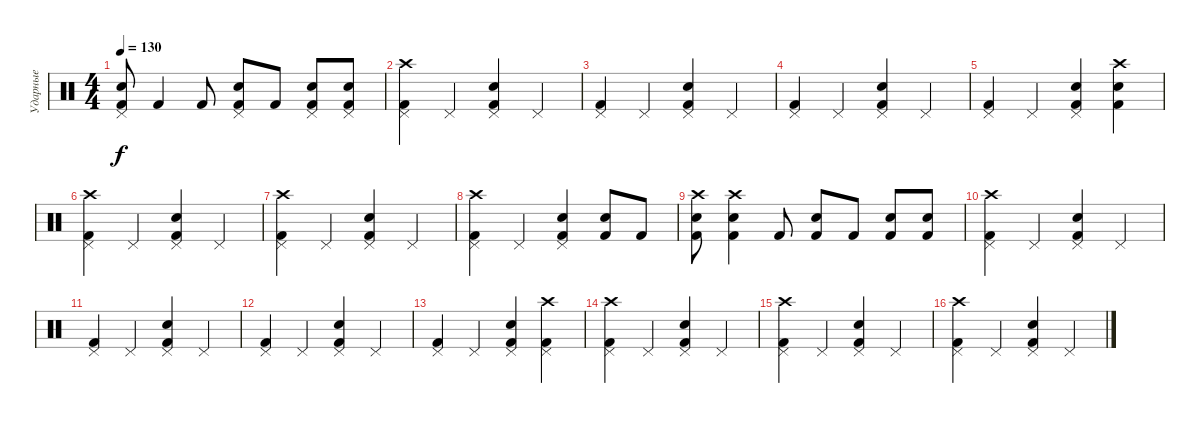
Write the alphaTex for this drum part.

\track ("Ударные" "Ударные") {instrument percussion}
\staff {score}
\articulation defaults
\ts (4 4)
\tempo 130
\clef neutral
\ks c
("Pedal Hi-Hat (hit)" "Snare (hit) 2" "Kick (hit) 2").8{dy f} "Kick (hit) 2".4 "Kick (hit) 2".8 ("Pedal Hi-Hat (hit)" "Snare (hit) 2" "Kick (hit) 2").8 "Kick (hit) 2".8 ("Pedal Hi-Hat (hit)" "Snare (hit) 2" "Kick (hit) 2").8 ("Pedal Hi-Hat (hit)" "Snare (hit) 2" "Kick (hit) 2").8 |
("Crash high (hit)" "Pedal Hi-Hat (hit)" "Kick (hit) 2").4 "Pedal Hi-Hat (hit)".4 ("Pedal Hi-Hat (hit)" "Snare (hit) 2" "Kick (hit) 2").4 "Pedal Hi-Hat (hit)".4 |
("Pedal Hi-Hat (hit)" "Kick (hit) 2").4 "Pedal Hi-Hat (hit)".4 ("Pedal Hi-Hat (hit)" "Snare (hit) 2" "Kick (hit) 2").4 "Pedal Hi-Hat (hit)".4 |
("Pedal Hi-Hat (hit)" "Kick (hit) 2").4 "Pedal Hi-Hat (hit)".4 ("Pedal Hi-Hat (hit)" "Snare (hit) 2" "Kick (hit) 2").4 "Pedal Hi-Hat (hit)".4 |
("Pedal Hi-Hat (hit)" "Kick (hit) 2").4 "Pedal Hi-Hat (hit)".4 ("Pedal Hi-Hat (hit)" "Snare (hit) 2" "Kick (hit) 2").4 ("Crash high (hit)" "Snare (hit) 2" "Kick (hit) 2").4 |
("Crash high (hit)" "Pedal Hi-Hat (hit)" "Kick (hit) 2").4 "Pedal Hi-Hat (hit)".4 ("Pedal Hi-Hat (hit)" "Snare (hit) 2" "Kick (hit) 2").4 "Pedal Hi-Hat (hit)".4 |
("Crash high (hit)" "Pedal Hi-Hat (hit)" "Kick (hit) 2").4 "Pedal Hi-Hat (hit)".4 ("Pedal Hi-Hat (hit)" "Snare (hit) 2" "Kick (hit) 2").4 "Pedal Hi-Hat (hit)".4 |
("Crash high (hit)" "Pedal Hi-Hat (hit)" "Kick (hit) 2").4 "Pedal Hi-Hat (hit)".4 ("Pedal Hi-Hat (hit)" "Snare (hit) 2" "Kick (hit) 2").4 ("Snare (hit) 2" "Kick (hit) 2").8 "Kick (hit) 2".8 |
("Crash high (hit)" "Kick (hit) 2" "Snare (hit) 2").8 ("Crash high (hit)" "Kick (hit) 2" "Snare (hit) 2").4 "Kick (hit) 2".8 ("Snare (hit) 2" "Kick (hit) 2").8 "Kick (hit) 2".8 ("Snare (hit) 2" "Kick (hit) 2").8 ("Snare (hit) 2" "Kick (hit) 2").8 |
("Crash high (hit)" "Pedal Hi-Hat (hit)" "Kick (hit) 2").4 "Pedal Hi-Hat (hit)".4 ("Pedal Hi-Hat (hit)" "Snare (hit) 2" "Kick (hit) 2").4 "Pedal Hi-Hat (hit)".4 |
("Pedal Hi-Hat (hit)" "Kick (hit) 2").4 "Pedal Hi-Hat (hit)".4 ("Pedal Hi-Hat (hit)" "Snare (hit) 2" "Kick (hit) 2").4 "Pedal Hi-Hat (hit)".4 |
("Pedal Hi-Hat (hit)" "Kick (hit) 2").4 "Pedal Hi-Hat (hit)".4 ("Pedal Hi-Hat (hit)" "Snare (hit) 2" "Kick (hit) 2").4 "Pedal Hi-Hat (hit)".4 |
("Pedal Hi-Hat (hit)" "Kick (hit) 2").4 "Pedal Hi-Hat (hit)".4 ("Pedal Hi-Hat (hit)" "Snare (hit) 2" "Kick (hit) 2").4 ("Crash high (hit)" "Pedal Hi-Hat (hit)" "Kick (hit) 2").4 |
("Crash high (hit)" "Pedal Hi-Hat (hit)" "Kick (hit) 2").4 "Pedal Hi-Hat (hit)".4 ("Pedal Hi-Hat (hit)" "Snare (hit) 2" "Kick (hit) 2").4 "Pedal Hi-Hat (hit)".4 |
("Crash high (hit)" "Pedal Hi-Hat (hit)" "Kick (hit) 2").4 "Pedal Hi-Hat (hit)".4 ("Pedal Hi-Hat (hit)" "Snare (hit) 2" "Kick (hit) 2").4 "Pedal Hi-Hat (hit)".4 |
("Crash high (hit)" "Pedal Hi-Hat (hit)" "Kick (hit) 2").4 "Pedal Hi-Hat (hit)".4 ("Pedal Hi-Hat (hit)" "Snare (hit) 2" "Kick (hit) 2").4 "Pedal Hi-Hat (hit)".4
